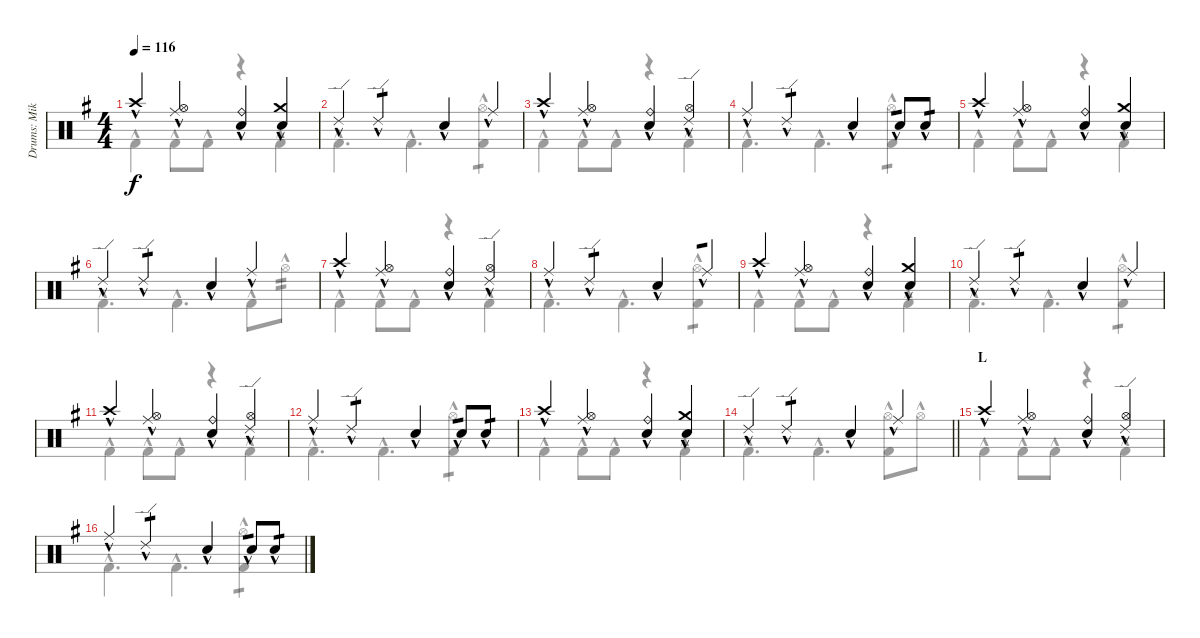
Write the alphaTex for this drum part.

\track ("Drums: Mike" "Drums: Mik") {instrument percussion}
\staff {score}
\articulation defaults
\voice
\ts (4 4)
\tempo 116
\clef neutral
\ks g "Crash high (hit)"{hac}.4{dy f}
("Ride (middle)"{hac} "Hi-Hat (open)"{hac}).4 ("Ride (bell)"{hac} "Snare (hit) 2"{hac}).4 ("Crash medium (hit)"{hac} "Snare (hit) 2"{hac}).4 |
"Ride (edge) 2"{hac}.4 "Ride (edge) 2"{hac}.4{tp 1} "Snare (hit) 2"{hac}.4 "Ride (middle)"{hac}.4 |
"Crash high (hit)"{hac}.4 ("Ride (middle)"{hac} "Hi-Hat (open)"{hac}).4 ("Ride (bell)"{hac} "Snare (hit) 2"{hac}).4 ("Ride (edge) 2"{hac} "Hi-Hat (open)"{hac}).4 |
"Ride (middle)"{hac}.4 "Ride (edge) 2"{hac}.4{tp 1} "Snare (hit) 2"{hac}.4 "Snare (hit) 2"{hac}.8{tp 1} "Snare (hit) 2"{hac}.8{tp 1} |
"Crash high (hit)"{hac}.4 ("Ride (middle)"{hac} "Hi-Hat (open)"{hac}).4 ("Ride (bell)"{hac} "Snare (hit) 2"{hac}).4 ("Crash medium (hit)"{hac} "Snare (hit) 2"{hac}).4 |
"Ride (edge) 2"{hac}.4 "Ride (edge) 2"{hac}.4{tp 1} "Snare (hit) 2"{hac}.4 "Ride (middle)"{hac}.4 |
"Crash high (hit)"{hac}.4 ("Ride (middle)"{hac} "Hi-Hat (open)"{hac}).4 ("Ride (bell)"{hac} "Snare (hit) 2"{hac}).4 ("Ride (edge) 2"{hac} "Hi-Hat (open)"{hac}).4 |
"Ride (middle)"{hac}.4 "Ride (edge) 2"{hac}.4{tp 1} "Snare (hit) 2"{hac}.4 "Ride (middle)"{hac}.4{tp 1} |
"Crash high (hit)"{hac}.4 ("Ride (middle)"{hac} "Hi-Hat (open)"{hac}).4 ("Ride (bell)"{hac} "Snare (hit) 2"{hac}).4 ("Crash medium (hit)"{hac} "Snare (hit) 2"{hac}).4 |
"Ride (edge) 2"{hac}.4 "Ride (edge) 2"{hac}.4{tp 1} "Snare (hit) 2"{hac}.4 "Ride (middle)"{hac}.4 |
"Crash high (hit)"{hac}.4 ("Ride (middle)"{hac} "Hi-Hat (open)"{hac}).4 ("Ride (bell)"{hac} "Snare (hit) 2"{hac}).4 ("Ride (edge) 2"{hac} "Hi-Hat (open)"{hac}).4 |
"Ride (middle)"{hac}.4 "Ride (edge) 2"{hac}.4{tp 1} "Snare (hit) 2"{hac}.4 "Snare (hit) 2"{hac}.8{tp 1} "Snare (hit) 2"{hac}.8{tp 1} |
"Crash high (hit)"{hac}.4 ("Ride (middle)"{hac} "Hi-Hat (open)"{hac}).4 ("Ride (bell)"{hac} "Snare (hit) 2"{hac}).4 ("Crash medium (hit)"{hac} "Snare (hit) 2"{hac}).4 |
\barLineRight lightlight "Ride (edge) 2"{hac}.4 "Ride (edge) 2"{hac}.4{tp 1} "Snare (hit) 2"{hac}.4 "Ride (middle)"{hac}.4
|
\section ("" "L")
"Crash high (hit)"{hac}.4 ("Ride (middle)"{hac} "Hi-Hat (open)"{hac}).4 ("Ride (bell)"{hac} "Snare (hit) 2"{hac}).4 ("Ride (edge) 2"{hac} "Hi-Hat (open)"{hac}).4 |
"Ride (middle)"{hac}.4 "Ride (edge) 2"{hac}.4{tp 1} "Snare (hit) 2"{hac}.4 "Snare (hit) 2"{hac}.8{tp 1} "Snare (hit) 2"{hac}.8{tp 1}
\voice
\clef neutral
\ottava regular
\simile none
\ks g "Kick (hit) 2"{hac}.4{dy f} "Kick (hit) 2"{hac}.8 "Kick (hit) 2"{hac}.8
r.4 "Kick (hit) 2"{hac}.4 |
"Kick (hit) 2"{hac}.4{d} "Kick (hit) 2"{hac}.4{d} ("Hi-Hat (open)"{hac} "Kick (hit) 2"{hac}).4{tp 1} |
"Kick (hit) 2"{hac}.4 "Kick (hit) 2"{hac}.8 "Kick (hit) 2"{hac}.8 r.4 "Kick (hit) 2"{hac}.4 |
"Kick (hit) 2"{hac}.4{d} "Kick (hit) 2"{hac}.4{d} ("Hi-Hat (open)"{hac} "Kick (hit) 2"{hac}).4{tp 1} |
"Kick (hit) 2"{hac}.4 "Kick (hit) 2"{hac}.8 "Kick (hit) 2"{hac}.8 r.4 "Kick (hit) 2"{hac}.4 |
"Kick (hit) 2"{hac}.4{d} "Kick (hit) 2"{hac}.4{d} "Kick (hit) 2"{hac}.8 "Hi-Hat (open)"{hac}.8{tp 2} |
"Kick (hit) 2"{hac}.4 "Kick (hit) 2"{hac}.8 "Kick (hit) 2"{hac}.8 r.4 "Kick (hit) 2"{hac}.4 |
"Kick (hit) 2"{hac}.4{d} "Kick (hit) 2"{hac}.4{d} ("Hi-Hat (open)"{hac} "Kick (hit) 2"{hac}).4{tp 1} |
"Kick (hit) 2"{hac}.4 "Kick (hit) 2"{hac}.8 "Kick (hit) 2"{hac}.8 r.4 "Kick (hit) 2"{hac}.4 |
"Kick (hit) 2"{hac}.4{d} "Kick (hit) 2"{hac}.4{d} ("Hi-Hat (open)"{hac} "Kick (hit) 2"{hac}).4{tp 1} |
"Kick (hit) 2"{hac}.4 "Kick (hit) 2"{hac}.8 "Kick (hit) 2"{hac}.8 r.4 "Kick (hit) 2"{hac}.4 |
"Kick (hit) 2"{hac}.4{d} "Kick (hit) 2"{hac}.4{d} ("Hi-Hat (open)"{hac} "Kick (hit) 2"{hac}).4{tp 1} |
"Kick (hit) 2"{hac}.4 "Kick (hit) 2"{hac}.8 "Kick (hit) 2"{hac}.8 r.4 "Kick (hit) 2"{hac}.4 |
\barLineRight lightlight "Kick (hit) 2"{hac}.4{d} "Kick (hit) 2"{hac}.4{d}
("Hi-Hat (open)"{hac} "Kick (hit) 2"{hac}).8 "Hi-Hat (open)"{hac}.8 |
"Kick (hit) 2"{hac}.4 "Kick (hit) 2"{hac}.8 "Kick (hit) 2"{hac}.8 r.4 "Kick (hit) 2"{hac}.4 |
"Kick (hit) 2"{hac}.4{d} "Kick (hit) 2"{hac}.4{d} ("Hi-Hat (open)"{hac} "Kick (hit) 2"{hac}).4{tp 1}
